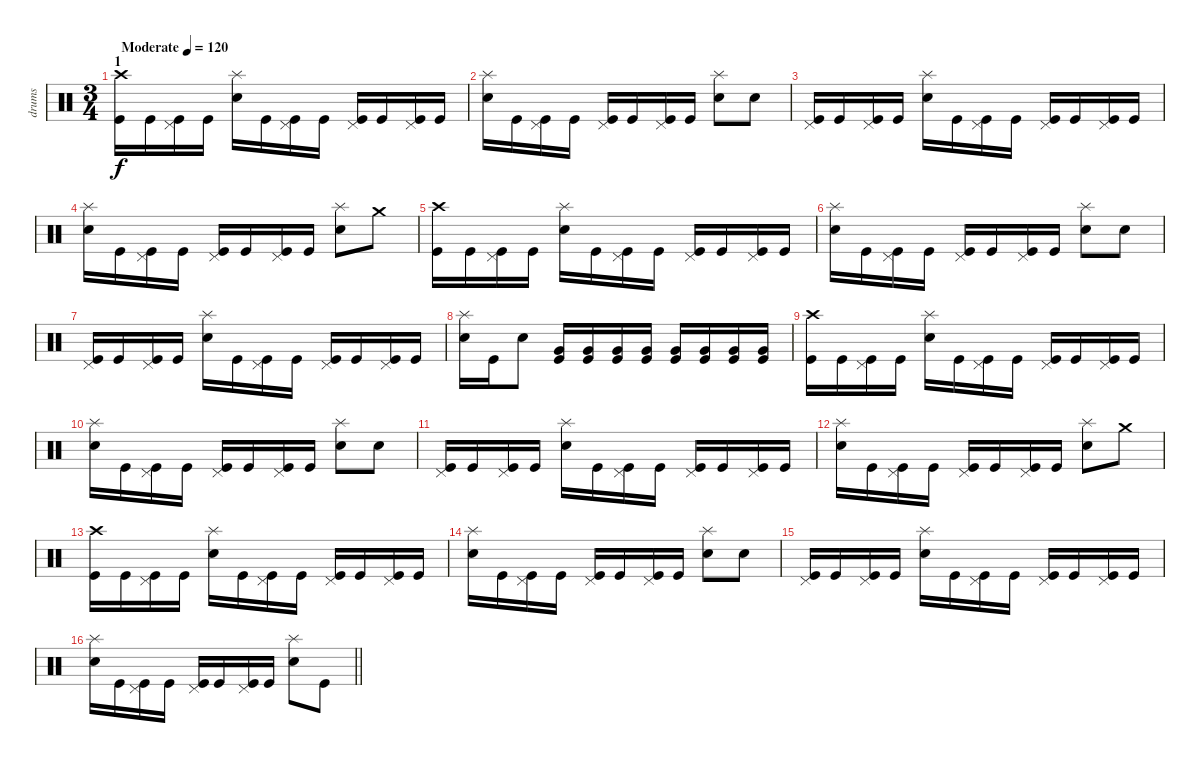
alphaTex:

\track ("drums" "drums") {instrument percussion}
\staff {score}
\articulation defaults
\ts (3 4)
\section ("" "1")
\tempo (120 "Moderate")
\clef neutral
\ks c
("Crash high (hit)" "Kick (hit)").16{dy f} "Kick (hit)".16 ("Pedal Hi-Hat (hit)" "Kick (hit)").16 "Kick (hit)".16 ("Splash (hit)" "Electric Snare (hit)").16 "Kick (hit)".16 ("Pedal Hi-Hat (hit)" "Kick (hit)").16 "Kick (hit)".16 ("Pedal Hi-Hat (hit)" "Kick (hit)").16 "Kick (hit)".16 ("Pedal Hi-Hat (hit)" "Kick (hit)").16 "Kick (hit)".16 |
("Splash (hit)" "Electric Snare (hit)").16 "Kick (hit)".16 ("Pedal Hi-Hat (hit)" "Kick (hit)").16 "Kick (hit)".16 ("Pedal Hi-Hat (hit)" "Kick (hit)").16 "Kick (hit)".16 ("Pedal Hi-Hat (hit)" "Kick (hit)").16 "Kick (hit)".16 ("Splash (hit)" "Electric Snare (hit)").8 "Electric Snare (hit)".8 |
("Pedal Hi-Hat (hit)" "Kick (hit)").16 "Kick (hit)".16 ("Pedal Hi-Hat (hit)" "Kick (hit)").16 "Kick (hit)".16 ("Splash (hit)" "Electric Snare (hit)").16 "Kick (hit)".16 ("Pedal Hi-Hat (hit)" "Kick (hit)").16 "Kick (hit)".16 ("Pedal Hi-Hat (hit)" "Kick (hit)").16 "Kick (hit)".16 ("Pedal Hi-Hat (hit)" "Kick (hit)").16 "Kick (hit)".16 |
("Splash (hit)" "Electric Snare (hit)").16 "Kick (hit)".16 ("Pedal Hi-Hat (hit)" "Kick (hit)").16 "Kick (hit)".16 ("Pedal Hi-Hat (hit)" "Kick (hit)").16 "Kick (hit)".16 ("Pedal Hi-Hat (hit)" "Kick (hit)").16 "Kick (hit)".16 ("Splash (hit)" "Electric Snare (hit)").8 "Crash medium (hit)".8 |
("Crash high (hit)" "Kick (hit)").16 "Kick (hit)".16 ("Pedal Hi-Hat (hit)" "Kick (hit)").16 "Kick (hit)".16 ("Splash (hit)" "Electric Snare (hit)").16 "Kick (hit)".16 ("Pedal Hi-Hat (hit)" "Kick (hit)").16 "Kick (hit)".16 ("Pedal Hi-Hat (hit)" "Kick (hit)").16 "Kick (hit)".16 ("Pedal Hi-Hat (hit)" "Kick (hit)").16 "Kick (hit)".16 |
("Splash (hit)" "Electric Snare (hit)").16 "Kick (hit)".16 ("Pedal Hi-Hat (hit)" "Kick (hit)").16 "Kick (hit)".16 ("Pedal Hi-Hat (hit)" "Kick (hit)").16 "Kick (hit)".16 ("Pedal Hi-Hat (hit)" "Kick (hit)").16 "Kick (hit)".16 ("Splash (hit)" "Electric Snare (hit)").8 "Electric Snare (hit)".8 |
("Pedal Hi-Hat (hit)" "Kick (hit)").16 "Kick (hit)".16 ("Pedal Hi-Hat (hit)" "Kick (hit)").16 "Kick (hit)".16 ("Splash (hit)" "Electric Snare (hit)").16 "Kick (hit)".16 ("Pedal Hi-Hat (hit)" "Kick (hit)").16 "Kick (hit)".16 ("Pedal Hi-Hat (hit)" "Kick (hit)").16 "Kick (hit)".16 ("Pedal Hi-Hat (hit)" "Kick (hit)").16 "Kick (hit)".16 |
("Splash (hit)" "Electric Snare (hit)").16 "Kick (hit)".16 "Electric Snare (hit)".8 ("Very Low Tom (hit)" "Kick (hit)").16 ("Very Low Tom (hit)" "Kick (hit)").16 ("Very Low Tom (hit)" "Kick (hit)").16 ("Very Low Tom (hit)" "Kick (hit)").16 ("Very Low Tom (hit)" "Kick (hit)").16 ("Very Low Tom (hit)" "Kick (hit)").16 ("Very Low Tom (hit)" "Kick (hit)").16 ("Very Low Tom (hit)" "Kick (hit)").16 |
("Crash high (hit)" "Kick (hit)").16 "Kick (hit)".16 ("Pedal Hi-Hat (hit)" "Kick (hit)").16 "Kick (hit)".16 ("Splash (hit)" "Electric Snare (hit)").16 "Kick (hit)".16 ("Pedal Hi-Hat (hit)" "Kick (hit)").16 "Kick (hit)".16 ("Pedal Hi-Hat (hit)" "Kick (hit)").16 "Kick (hit)".16 ("Pedal Hi-Hat (hit)" "Kick (hit)").16 "Kick (hit)".16 |
("Splash (hit)" "Electric Snare (hit)").16 "Kick (hit)".16 ("Pedal Hi-Hat (hit)" "Kick (hit)").16 "Kick (hit)".16 ("Pedal Hi-Hat (hit)" "Kick (hit)").16 "Kick (hit)".16 ("Pedal Hi-Hat (hit)" "Kick (hit)").16 "Kick (hit)".16 ("Splash (hit)" "Electric Snare (hit)").8 "Electric Snare (hit)".8 |
("Pedal Hi-Hat (hit)" "Kick (hit)").16 "Kick (hit)".16 ("Pedal Hi-Hat (hit)" "Kick (hit)").16 "Kick (hit)".16 ("Splash (hit)" "Electric Snare (hit)").16 "Kick (hit)".16 ("Pedal Hi-Hat (hit)" "Kick (hit)").16 "Kick (hit)".16 ("Pedal Hi-Hat (hit)" "Kick (hit)").16 "Kick (hit)".16 ("Pedal Hi-Hat (hit)" "Kick (hit)").16 "Kick (hit)".16 |
("Splash (hit)" "Electric Snare (hit)").16 "Kick (hit)".16 ("Pedal Hi-Hat (hit)" "Kick (hit)").16 "Kick (hit)".16 ("Pedal Hi-Hat (hit)" "Kick (hit)").16 "Kick (hit)".16 ("Pedal Hi-Hat (hit)" "Kick (hit)").16 "Kick (hit)".16 ("Splash (hit)" "Electric Snare (hit)").8 "Crash medium (hit)".8 |
("Crash high (hit)" "Kick (hit)").16 "Kick (hit)".16 ("Pedal Hi-Hat (hit)" "Kick (hit)").16 "Kick (hit)".16 ("Splash (hit)" "Electric Snare (hit)").16 "Kick (hit)".16 ("Pedal Hi-Hat (hit)" "Kick (hit)").16 "Kick (hit)".16 ("Pedal Hi-Hat (hit)" "Kick (hit)").16 "Kick (hit)".16 ("Pedal Hi-Hat (hit)" "Kick (hit)").16 "Kick (hit)".16 |
("Splash (hit)" "Electric Snare (hit)").16 "Kick (hit)".16 ("Pedal Hi-Hat (hit)" "Kick (hit)").16 "Kick (hit)".16 ("Pedal Hi-Hat (hit)" "Kick (hit)").16 "Kick (hit)".16 ("Pedal Hi-Hat (hit)" "Kick (hit)").16 "Kick (hit)".16 ("Splash (hit)" "Electric Snare (hit)").8 "Electric Snare (hit)".8 |
("Pedal Hi-Hat (hit)" "Kick (hit)").16 "Kick (hit)".16 ("Pedal Hi-Hat (hit)" "Kick (hit)").16 "Kick (hit)".16 ("Splash (hit)" "Electric Snare (hit)").16 "Kick (hit)".16 ("Pedal Hi-Hat (hit)" "Kick (hit)").16 "Kick (hit)".16 ("Pedal Hi-Hat (hit)" "Kick (hit)").16 "Kick (hit)".16 ("Pedal Hi-Hat (hit)" "Kick (hit)").16 "Kick (hit)".16 |
\barLineRight lightlight
("Splash (hit)" "Electric Snare (hit)").16 "Kick (hit)".16 ("Pedal Hi-Hat (hit)" "Kick (hit)").16 "Kick (hit)".16 ("Pedal Hi-Hat (hit)" "Kick (hit)").16 "Kick (hit)".16 ("Pedal Hi-Hat (hit)" "Kick (hit)").16 "Kick (hit)".16 ("Splash (hit)" "Electric Snare (hit)").8 "Kick (hit)".8
